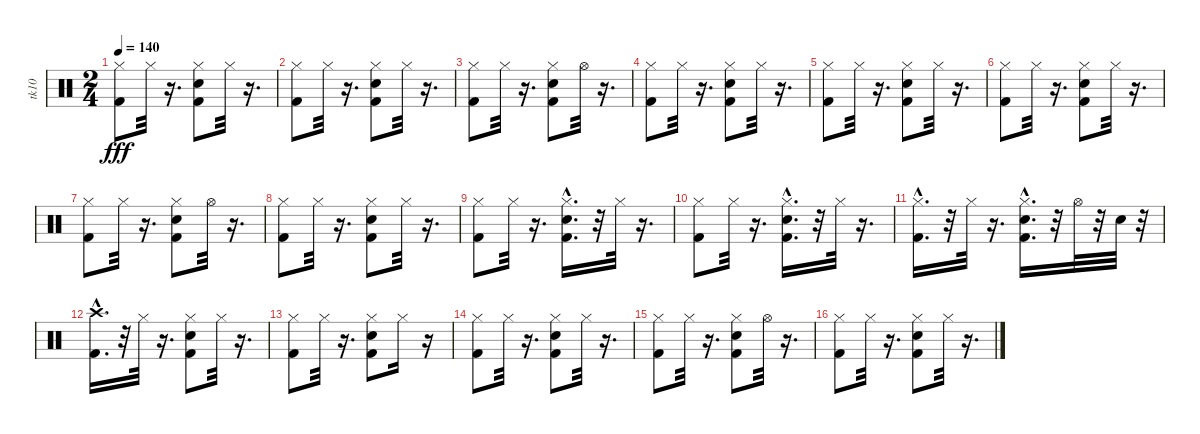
\track ("tk10" "tk10") {instrument percussion}
\staff {score}
\articulation defaults
\ts (2 4)
\tempo 140
\clef neutral
\ks c
("Kick (hit) 2" "Hi-Hat (closed)").8{dy fff} "Hi-Hat (closed)".32 r.16{d} ("Snare (hit) 2" "Kick (hit) 2" "Hi-Hat (closed)").8 "Hi-Hat (closed)".32 r.16{d} |
("Kick (hit) 2" "Hi-Hat (closed)").8 "Hi-Hat (closed)".32 r.16{d} ("Snare (hit) 2" "Kick (hit) 2" "Hi-Hat (closed)").8 "Hi-Hat (closed)".32 r.16{d} |
("Kick (hit) 2" "Hi-Hat (closed)").8 "Hi-Hat (closed)".32 r.16{d} ("Hi-Hat (closed)" "Snare (hit) 2" "Kick (hit) 2").8 "Hi-Hat (open)".32 r.16{d} |
("Kick (hit) 2" "Hi-Hat (closed)").8 "Hi-Hat (closed)".32 r.16{d} ("Snare (hit) 2" "Kick (hit) 2" "Hi-Hat (closed)").8 "Hi-Hat (closed)".32 r.16{d} |
("Kick (hit) 2" "Hi-Hat (closed)").8 "Hi-Hat (closed)".32 r.16{d} ("Snare (hit) 2" "Kick (hit) 2" "Hi-Hat (closed)").8 "Hi-Hat (closed)".32 r.16{d} |
("Kick (hit) 2" "Hi-Hat (closed)").8 "Hi-Hat (closed)".32 r.16{d} ("Snare (hit) 2" "Kick (hit) 2" "Hi-Hat (closed)").8 "Hi-Hat (closed)".32 r.16{d} |
("Kick (hit) 2" "Hi-Hat (closed)").8 "Hi-Hat (closed)".32 r.16{d} ("Snare (hit) 2" "Kick (hit) 2" "Hi-Hat (closed)").8 "Hi-Hat (open)".32 r.16{d} |
("Kick (hit) 2" "Hi-Hat (closed)").8 "Hi-Hat (closed)".32 r.16{d} ("Snare (hit) 2" "Kick (hit) 2" "Hi-Hat (closed)").8 "Hi-Hat (closed)".32 r.16{d} |
("Kick (hit) 2" "Hi-Hat (closed)").8 "Hi-Hat (closed)".32 r.16{d} ("Snare (hit) 2"{hac} "Kick (hit) 2"{hac} "Hi-Hat (closed)").16{d} r.32 "Hi-Hat (closed)".32 r.16{d} |
("Kick (hit) 2" "Hi-Hat (closed)").8 "Hi-Hat (closed)".32 r.16{d} ("Snare (hit) 2"{hac} "Kick (hit) 2"{hac} "Hi-Hat (closed)").16{d} r.32 "Hi-Hat (closed)".32 r.16{d} |
("Kick (hit) 2"{hac} "Hi-Hat (closed)").16{d} r.32 "Hi-Hat (closed)".32 r.16{d} ("Snare (hit) 2"{hac} "Kick (hit) 2"{hac} "Hi-Hat (closed)").16{d} r.32 "Hi-Hat (open)".32 r.32 "Snare (hit) 2".32 r.32 |
("Kick (hit) 2"{hac} "Crash high (hit)").16{d} r.32 "Hi-Hat (closed)".32 r.16{d} ("Snare (hit) 2" "Hi-Hat (closed)" "Kick (hit) 2").8 "Hi-Hat (closed)".32 r.16{d} |
("Kick (hit) 2" "Hi-Hat (closed)").8 "Hi-Hat (closed)".32 r.16{d} ("Snare (hit) 2" "Kick (hit) 2" "Hi-Hat (closed)").8 "Hi-Hat (closed)".16 r.16 |
("Kick (hit) 2" "Hi-Hat (closed)").8 "Hi-Hat (closed)".32 r.16{d} ("Snare (hit) 2" "Kick (hit) 2" "Hi-Hat (closed)").8 "Hi-Hat (closed)".32 r.16{d} |
("Kick (hit) 2" "Hi-Hat (closed)").8 "Hi-Hat (closed)".32 r.16{d} ("Kick (hit) 2" "Snare (hit) 2" "Hi-Hat (closed)").8 "Hi-Hat (open)".32 r.16{d} |
("Kick (hit) 2" "Hi-Hat (closed)").8 "Hi-Hat (closed)".32 r.16{d} ("Hi-Hat (closed)" "Snare (hit) 2" "Kick (hit) 2").8 "Hi-Hat (closed)".32 r.16{d}
